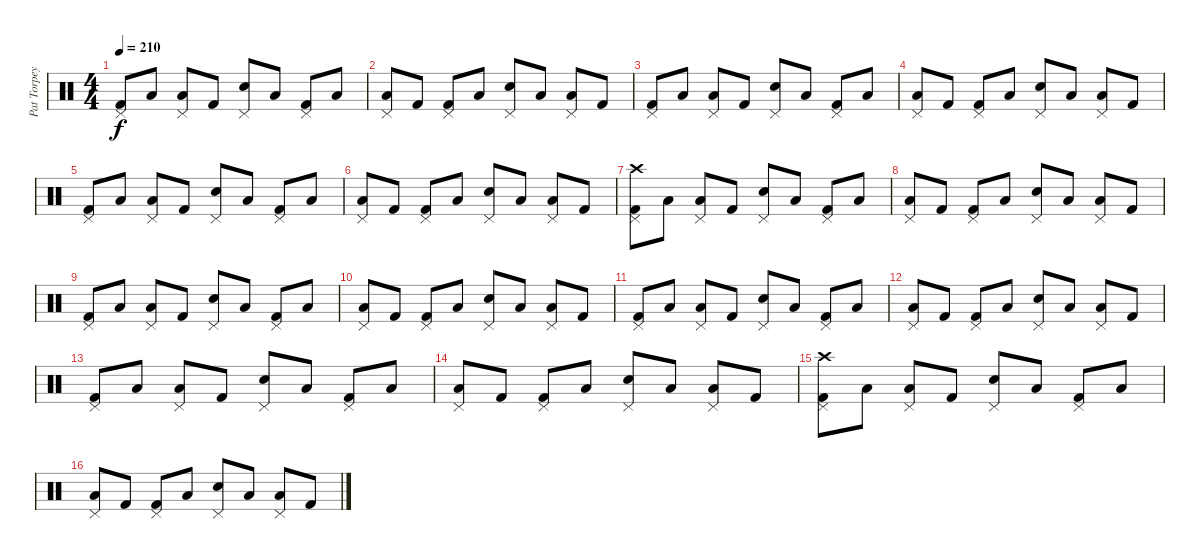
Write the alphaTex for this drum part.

\track ("Pat Torpey" "Pat Torpey") {instrument percussion}
\staff {score}
\articulation defaults
\ts (4 4)
\tempo 210
\clef neutral
\ks c
("Pedal Hi-Hat (hit)" "Kick (hit) 2").8{dy f} "Low Floor Tom (hit)".8 ("Pedal Hi-Hat (hit)" "Low Floor Tom (hit)").8 "Kick (hit) 2".8 ("Pedal Hi-Hat (hit)" "Snare (hit) 2").8 "Low Floor Tom (hit)".8 ("Pedal Hi-Hat (hit)" "Kick (hit) 2").8 "Low Floor Tom (hit)".8 |
("Pedal Hi-Hat (hit)" "Low Floor Tom (hit)").8 "Kick (hit) 2".8 ("Pedal Hi-Hat (hit)" "Kick (hit) 2").8 "Low Floor Tom (hit)".8 ("Pedal Hi-Hat (hit)" "Snare (hit) 2").8 "Low Floor Tom (hit)".8 ("Pedal Hi-Hat (hit)" "Low Floor Tom (hit)").8 "Kick (hit) 2".8 |
("Pedal Hi-Hat (hit)" "Kick (hit) 2").8 "Low Floor Tom (hit)".8 ("Pedal Hi-Hat (hit)" "Low Floor Tom (hit)").8 "Kick (hit) 2".8 ("Pedal Hi-Hat (hit)" "Snare (hit) 2").8 "Low Floor Tom (hit)".8 ("Pedal Hi-Hat (hit)" "Kick (hit) 2").8 "Low Floor Tom (hit)".8 |
("Pedal Hi-Hat (hit)" "Low Floor Tom (hit)").8 "Kick (hit) 2".8 ("Pedal Hi-Hat (hit)" "Kick (hit) 2").8 "Low Floor Tom (hit)".8 ("Pedal Hi-Hat (hit)" "Snare (hit) 2").8 "Low Floor Tom (hit)".8 ("Pedal Hi-Hat (hit)" "Low Floor Tom (hit)").8 "Kick (hit) 2".8 |
("Pedal Hi-Hat (hit)" "Kick (hit) 2").8 "Low Floor Tom (hit)".8 ("Pedal Hi-Hat (hit)" "Low Floor Tom (hit)").8 "Kick (hit) 2".8 ("Pedal Hi-Hat (hit)" "Snare (hit) 2").8 "Low Floor Tom (hit)".8 ("Pedal Hi-Hat (hit)" "Kick (hit) 2").8 "Low Floor Tom (hit)".8 |
("Pedal Hi-Hat (hit)" "Low Floor Tom (hit)").8 "Kick (hit) 2".8 ("Pedal Hi-Hat (hit)" "Kick (hit) 2").8 "Low Floor Tom (hit)".8 ("Pedal Hi-Hat (hit)" "Snare (hit) 2").8 "Low Floor Tom (hit)".8 ("Pedal Hi-Hat (hit)" "Low Floor Tom (hit)").8 "Kick (hit) 2".8 |
("Crash high (hit)" "Pedal Hi-Hat (hit)" "Kick (hit) 2").8 "Low Floor Tom (hit)".8 ("Pedal Hi-Hat (hit)" "Low Floor Tom (hit)").8 "Kick (hit) 2".8 ("Pedal Hi-Hat (hit)" "Snare (hit) 2").8 "Low Floor Tom (hit)".8 ("Pedal Hi-Hat (hit)" "Kick (hit) 2").8 "Low Floor Tom (hit)".8 |
("Pedal Hi-Hat (hit)" "Low Floor Tom (hit)").8 "Kick (hit) 2".8 ("Pedal Hi-Hat (hit)" "Kick (hit) 2").8 "Low Floor Tom (hit)".8 ("Pedal Hi-Hat (hit)" "Snare (hit) 2").8 "Low Floor Tom (hit)".8 ("Pedal Hi-Hat (hit)" "Low Floor Tom (hit)").8 "Kick (hit) 2".8 |
("Pedal Hi-Hat (hit)" "Kick (hit) 2").8 "Low Floor Tom (hit)".8 ("Pedal Hi-Hat (hit)" "Low Floor Tom (hit)").8 "Kick (hit) 2".8 ("Pedal Hi-Hat (hit)" "Snare (hit) 2").8 "Low Floor Tom (hit)".8 ("Pedal Hi-Hat (hit)" "Kick (hit) 2").8 "Low Floor Tom (hit)".8 |
("Pedal Hi-Hat (hit)" "Low Floor Tom (hit)").8 "Kick (hit) 2".8 ("Pedal Hi-Hat (hit)" "Kick (hit) 2").8 "Low Floor Tom (hit)".8 ("Pedal Hi-Hat (hit)" "Snare (hit) 2").8 "Low Floor Tom (hit)".8 ("Pedal Hi-Hat (hit)" "Low Floor Tom (hit)").8 "Kick (hit) 2".8 |
("Pedal Hi-Hat (hit)" "Kick (hit) 2").8 "Low Floor Tom (hit)".8 ("Pedal Hi-Hat (hit)" "Low Floor Tom (hit)").8 "Kick (hit) 2".8 ("Pedal Hi-Hat (hit)" "Snare (hit) 2").8 "Low Floor Tom (hit)".8 ("Pedal Hi-Hat (hit)" "Kick (hit) 2").8 "Low Floor Tom (hit)".8 |
("Pedal Hi-Hat (hit)" "Low Floor Tom (hit)").8 "Kick (hit) 2".8 ("Pedal Hi-Hat (hit)" "Kick (hit) 2").8 "Low Floor Tom (hit)".8 ("Pedal Hi-Hat (hit)" "Snare (hit) 2").8 "Low Floor Tom (hit)".8 ("Pedal Hi-Hat (hit)" "Low Floor Tom (hit)").8 "Kick (hit) 2".8 |
("Pedal Hi-Hat (hit)" "Kick (hit) 2").8 "Low Floor Tom (hit)".8 ("Pedal Hi-Hat (hit)" "Low Floor Tom (hit)").8 "Kick (hit) 2".8 ("Pedal Hi-Hat (hit)" "Snare (hit) 2").8 "Low Floor Tom (hit)".8 ("Pedal Hi-Hat (hit)" "Kick (hit) 2").8 "Low Floor Tom (hit)".8 |
("Pedal Hi-Hat (hit)" "Low Floor Tom (hit)").8 "Kick (hit) 2".8 ("Pedal Hi-Hat (hit)" "Kick (hit) 2").8 "Low Floor Tom (hit)".8 ("Pedal Hi-Hat (hit)" "Snare (hit) 2").8 "Low Floor Tom (hit)".8 ("Pedal Hi-Hat (hit)" "Low Floor Tom (hit)").8 "Kick (hit) 2".8 |
("Crash high (hit)" "Pedal Hi-Hat (hit)" "Kick (hit) 2").8 "Low Floor Tom (hit)".8 ("Pedal Hi-Hat (hit)" "Low Floor Tom (hit)").8 "Kick (hit) 2".8 ("Pedal Hi-Hat (hit)" "Snare (hit) 2").8 "Low Floor Tom (hit)".8 ("Pedal Hi-Hat (hit)" "Kick (hit) 2").8 "Low Floor Tom (hit)".8 |
("Pedal Hi-Hat (hit)" "Low Floor Tom (hit)").8 "Kick (hit) 2".8 ("Pedal Hi-Hat (hit)" "Kick (hit) 2").8 "Low Floor Tom (hit)".8 ("Pedal Hi-Hat (hit)" "Snare (hit) 2").8 "Low Floor Tom (hit)".8 ("Pedal Hi-Hat (hit)" "Low Floor Tom (hit)").8 "Kick (hit) 2".8
